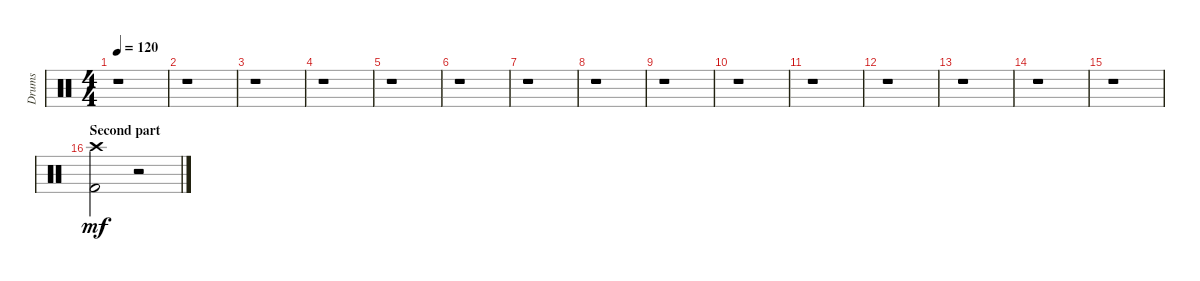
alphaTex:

\track ("Drums" "Drums") {instrument percussion}
\staff {score}
\articulation defaults
\ts (4 4)
\tempo 120
\clef neutral
\ks c
r.1{dy mf} |
r.1 |
r.1 |
r.1 |
r.1 |
r.1 |
r.1 |
r.1 |
r.1 |
r.1 |
r.1 |
r.1 |
r.1 |
r.1 |
r.1 |
\section ("" "Second part")
("Kick (hit) 2" "Crash high (hit)").2 r.2
